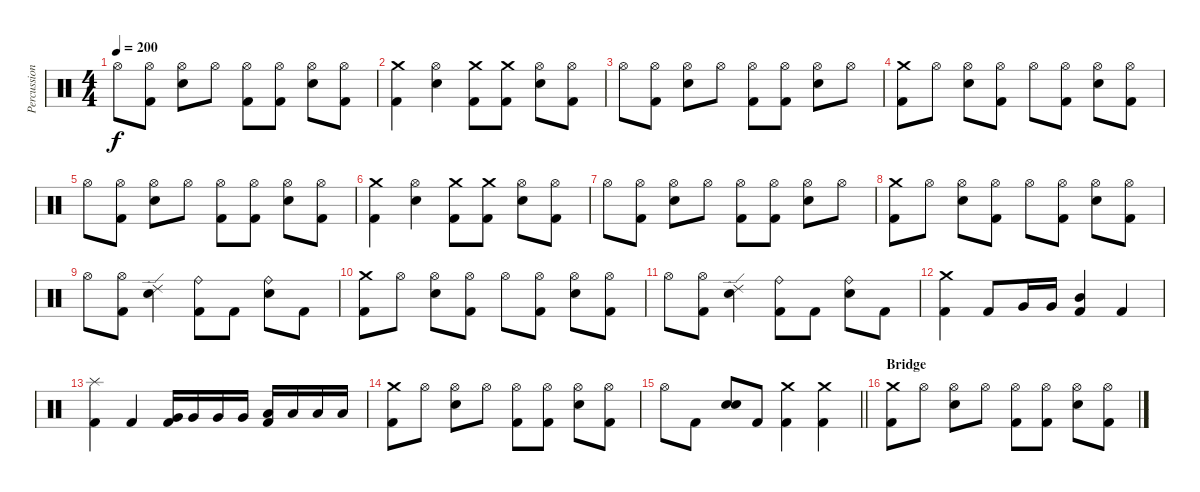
\track ("Percussion" "Percussion") {instrument percussion}
\staff {score}
\articulation defaults
\ts (4 4)
\tempo 200
\clef neutral
\ks c "Hi-Hat (open)".8{dy f}
("Hi-Hat (open)" "Kick (hit) 2").8 ("Hi-Hat (open)" "Electric Snare (hit)").8 "Hi-Hat (open)".8 ("Hi-Hat (open)" "Kick (hit) 2").8 ("Hi-Hat (open)" "Kick (hit) 2").8 ("Hi-Hat (open)" "Electric Snare (hit)").8 ("Hi-Hat (open)" "Kick (hit) 2").8 |
("Crash medium (hit)" "Kick (hit) 2").4 ("Hi-Hat (open)" "Electric Snare (hit)").4 ("Crash medium (hit)" "Kick (hit) 2").8 ("Crash medium (hit)" "Kick (hit) 2").8 ("Hi-Hat (open)" "Electric Snare (hit)").8 ("Hi-Hat (open)" "Kick (hit) 2").8 |
"Hi-Hat (open)".8 ("Hi-Hat (open)" "Kick (hit) 2").8 ("Hi-Hat (open)" "Electric Snare (hit)").8 "Hi-Hat (open)".8 ("Hi-Hat (open)" "Kick (hit) 2").8 ("Hi-Hat (open)" "Kick (hit) 2").8 ("Hi-Hat (open)" "Electric Snare (hit)").8 "Hi-Hat (open)".8 |
("Crash medium (hit)" "Kick (hit) 2").8 "Hi-Hat (open)".8 ("Hi-Hat (open)" "Electric Snare (hit)").8 ("Hi-Hat (open)" "Kick (hit) 2").8 "Hi-Hat (open)".8 ("Hi-Hat (open)" "Kick (hit) 2").8 ("Hi-Hat (open)" "Electric Snare (hit)").8 ("Hi-Hat (open)" "Kick (hit) 2").8 |
"Hi-Hat (open)".8 ("Hi-Hat (open)" "Kick (hit) 2").8 ("Hi-Hat (open)" "Electric Snare (hit)").8 "Hi-Hat (open)".8 ("Hi-Hat (open)" "Kick (hit) 2").8 ("Hi-Hat (open)" "Kick (hit) 2").8 ("Hi-Hat (open)" "Electric Snare (hit)").8 ("Hi-Hat (open)" "Kick (hit) 2").8 |
("Crash medium (hit)" "Kick (hit) 2").4 ("Hi-Hat (open)" "Electric Snare (hit)").4 ("Crash medium (hit)" "Kick (hit) 2").8 ("Crash medium (hit)" "Kick (hit) 2").8 ("Hi-Hat (open)" "Electric Snare (hit)").8 ("Hi-Hat (open)" "Kick (hit) 2").8 |
"Hi-Hat (open)".8 ("Hi-Hat (open)" "Kick (hit) 2").8 ("Hi-Hat (open)" "Electric Snare (hit)").8 "Hi-Hat (open)".8 ("Hi-Hat (open)" "Kick (hit) 2").8 ("Hi-Hat (open)" "Kick (hit) 2").8 ("Hi-Hat (open)" "Electric Snare (hit)").8 "Hi-Hat (open)".8 |
("Crash medium (hit)" "Kick (hit) 2").8 "Hi-Hat (open)".8 ("Hi-Hat (open)" "Electric Snare (hit)").8 ("Hi-Hat (open)" "Kick (hit) 2").8 "Hi-Hat (open)".8 ("Hi-Hat (open)" "Kick (hit) 2").8 ("Hi-Hat (open)" "Electric Snare (hit)").8 ("Hi-Hat (open)" "Kick (hit) 2").8 |
"Hi-Hat (open)".8 ("Hi-Hat (open)" "Kick (hit) 2").8 ("Ride (edge) 2" "Electric Snare (hit)").4 ("Ride (bell)" "Kick (hit) 2").8 "Kick (hit) 2".8 ("Ride (bell)" "Electric Snare (hit)").8 "Kick (hit) 2".8 |
("Crash medium (hit)" "Kick (hit) 2").8 "Hi-Hat (open)".8 ("Hi-Hat (open)" "Electric Snare (hit)").8 ("Hi-Hat (open)" "Kick (hit) 2").8 "Hi-Hat (open)".8 ("Hi-Hat (open)" "Kick (hit) 2").8 ("Hi-Hat (open)" "Electric Snare (hit)").8 ("Hi-Hat (open)" "Kick (hit) 2").8 |
"Hi-Hat (open)".8 ("Hi-Hat (open)" "Kick (hit) 2").8 ("Ride (edge) 2" "Electric Snare (hit)").4 ("Ride (bell)" "Kick (hit) 2").8 "Kick (hit) 2".8 ("Ride (bell)" "Electric Snare (hit)").8 "Kick (hit) 2".8 |
("Crash medium (hit)" "Kick (hit) 2").4 "Kick (hit) 2".8 "Very Low Tom (hit)".16 "Very Low Tom (hit)".16 ("Mid Tom (hit)" "Kick (hit) 2").4 "Kick (hit) 2".4 |
("Splash (hit)" "Kick (hit) 2").4 "Kick (hit) 2".4 ("Very Low Tom (hit)" "Kick (hit) 2").16 "Very Low Tom (hit)".16 "Very Low Tom (hit)".16 "Very Low Tom (hit)".16 ("Low Floor Tom (hit)" "Kick (hit) 2").16 "Low Floor Tom (hit)".16 "Low Floor Tom (hit)".16 "Low Floor Tom (hit)".16 |
("Crash medium (hit)" "Kick (hit) 2").8 "Hi-Hat (open)".8 ("Hi-Hat (open)" "Electric Snare (hit)").8 "Hi-Hat (open)".8 ("Hi-Hat (open)" "Kick (hit) 2").8 ("Hi-Hat (open)" "Kick (hit) 2").8 ("Hi-Hat (open)" "Electric Snare (hit)").8 ("Hi-Hat (open)" "Kick (hit) 2").8 |
\barLineRight lightlight "Hi-Hat (open)".8 "Kick (hit) 2".8
("Electric Snare (hit)" "Electric Snare (hit)").8 "Kick (hit) 2".8 ("Crash medium (hit)" "Kick (hit) 2").4 ("Crash medium (hit)" "Kick (hit) 2").4 |
\section ("" "Bridge")
("Crash medium (hit)" "Kick (hit) 2").8 "Hi-Hat (open)".8 ("Hi-Hat (open)" "Electric Snare (hit)").8 "Hi-Hat (open)".8 ("Hi-Hat (open)" "Kick (hit) 2").8 ("Hi-Hat (open)" "Kick (hit) 2").8 ("Hi-Hat (open)" "Electric Snare (hit)").8 ("Hi-Hat (open)" "Kick (hit) 2").8
